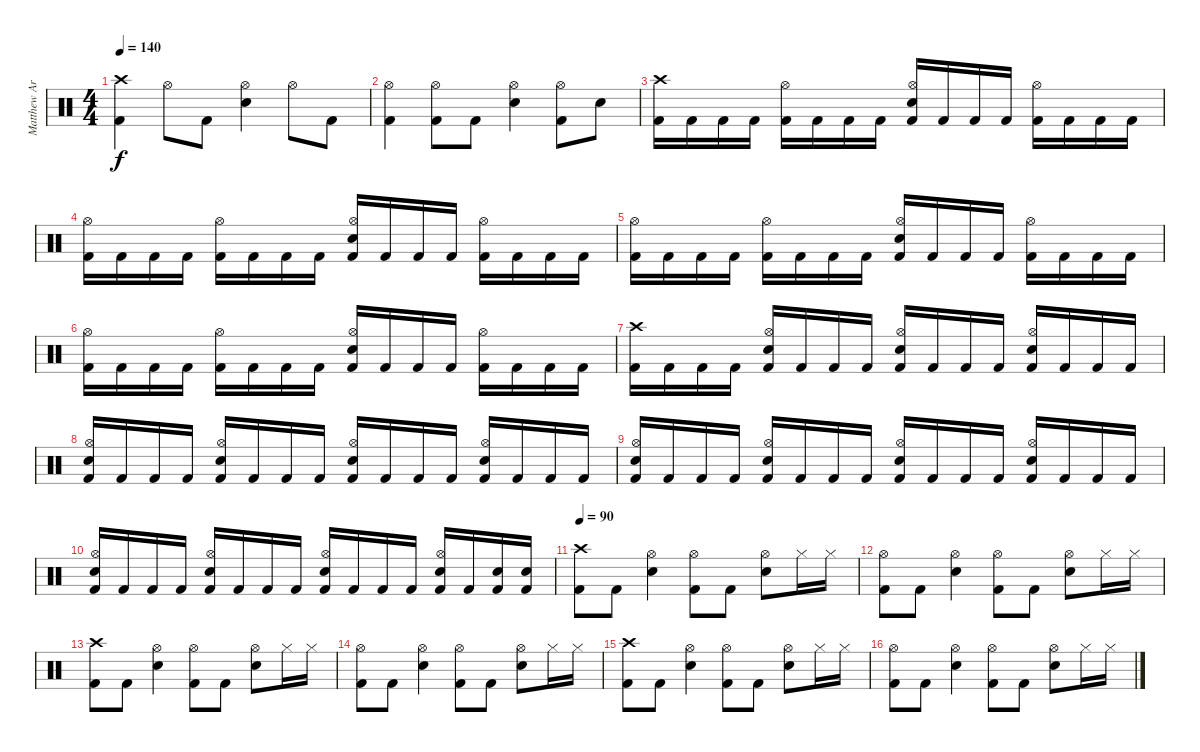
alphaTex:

\track ("Matthew Archer" "Matthew Ar") {instrument percussion}
\staff {score}
\articulation defaults
\ts (4 4)
\tempo 140
\clef neutral
\ks c
("Kick (hit) 2" "Crash high (hit)").4{dy f} "Hi-Hat (open)".8 "Kick (hit) 2".8 ("Hi-Hat (open)" "Electric Snare (hit)").4 "Hi-Hat (open)".8 "Kick (hit) 2".8 |
("Hi-Hat (open)" "Kick (hit) 2").4 ("Hi-Hat (open)" "Kick (hit) 2").8 "Kick (hit) 2".8 ("Hi-Hat (open)" "Electric Snare (hit)").4 ("Hi-Hat (open)" "Kick (hit) 2").8 "Electric Snare (hit)".8 |
("Crash high (hit)" "Kick (hit) 2").16 "Kick (hit) 2".16 "Kick (hit) 2".16 "Kick (hit) 2".16 ("Hi-Hat (open)" "Kick (hit) 2").16 "Kick (hit) 2".16 "Kick (hit) 2".16 "Kick (hit) 2".16 ("Hi-Hat (open)" "Electric Snare (hit)" "Kick (hit) 2").16 "Kick (hit) 2".16 "Kick (hit) 2".16 "Kick (hit) 2".16 ("Hi-Hat (open)" "Kick (hit) 2").16 "Kick (hit) 2".16 "Kick (hit) 2".16 "Kick (hit) 2".16 |
("Hi-Hat (open)" "Kick (hit) 2").16 "Kick (hit) 2".16 "Kick (hit) 2".16 "Kick (hit) 2".16 ("Hi-Hat (open)" "Kick (hit) 2").16 "Kick (hit) 2".16 "Kick (hit) 2".16 "Kick (hit) 2".16 ("Hi-Hat (open)" "Electric Snare (hit)" "Kick (hit) 2").16 "Kick (hit) 2".16 "Kick (hit) 2".16 "Kick (hit) 2".16 ("Hi-Hat (open)" "Kick (hit) 2").16 "Kick (hit) 2".16 "Kick (hit) 2".16 "Kick (hit) 2".16 |
("Hi-Hat (open)" "Kick (hit) 2").16 "Kick (hit) 2".16 "Kick (hit) 2".16 "Kick (hit) 2".16 ("Hi-Hat (open)" "Kick (hit) 2").16 "Kick (hit) 2".16 "Kick (hit) 2".16 "Kick (hit) 2".16 ("Hi-Hat (open)" "Electric Snare (hit)" "Kick (hit) 2").16 "Kick (hit) 2".16 "Kick (hit) 2".16 "Kick (hit) 2".16 ("Hi-Hat (open)" "Kick (hit) 2").16 "Kick (hit) 2".16 "Kick (hit) 2".16 "Kick (hit) 2".16 |
("Hi-Hat (open)" "Kick (hit) 2").16 "Kick (hit) 2".16 "Kick (hit) 2".16 "Kick (hit) 2".16 ("Hi-Hat (open)" "Kick (hit) 2").16 "Kick (hit) 2".16 "Kick (hit) 2".16 "Kick (hit) 2".16 ("Hi-Hat (open)" "Electric Snare (hit)" "Kick (hit) 2").16 "Kick (hit) 2".16 "Kick (hit) 2".16 "Kick (hit) 2".16 ("Hi-Hat (open)" "Kick (hit) 2").16 "Kick (hit) 2".16 "Kick (hit) 2".16 "Kick (hit) 2".16 |
("Crash high (hit)" "Kick (hit) 2").16 "Kick (hit) 2".16 "Kick (hit) 2".16 "Kick (hit) 2".16 ("Electric Snare (hit)" "Hi-Hat (open)" "Kick (hit) 2").16 "Kick (hit) 2".16 "Kick (hit) 2".16 "Kick (hit) 2".16 ("Hi-Hat (open)" "Electric Snare (hit)" "Kick (hit) 2").16 "Kick (hit) 2".16 "Kick (hit) 2".16 "Kick (hit) 2".16 ("Electric Snare (hit)" "Hi-Hat (open)" "Kick (hit) 2").16 "Kick (hit) 2".16 "Kick (hit) 2".16 "Kick (hit) 2".16 |
("Electric Snare (hit)" "Hi-Hat (open)" "Kick (hit) 2").16 "Kick (hit) 2".16 "Kick (hit) 2".16 "Kick (hit) 2".16 ("Electric Snare (hit)" "Hi-Hat (open)" "Kick (hit) 2").16 "Kick (hit) 2".16 "Kick (hit) 2".16 "Kick (hit) 2".16 ("Hi-Hat (open)" "Electric Snare (hit)" "Kick (hit) 2").16 "Kick (hit) 2".16 "Kick (hit) 2".16 "Kick (hit) 2".16 ("Electric Snare (hit)" "Hi-Hat (open)" "Kick (hit) 2").16 "Kick (hit) 2".16 "Kick (hit) 2".16 "Kick (hit) 2".16 |
("Electric Snare (hit)" "Hi-Hat (open)" "Kick (hit) 2").16 "Kick (hit) 2".16 "Kick (hit) 2".16 "Kick (hit) 2".16 ("Electric Snare (hit)" "Hi-Hat (open)" "Kick (hit) 2").16 "Kick (hit) 2".16 "Kick (hit) 2".16 "Kick (hit) 2".16 ("Hi-Hat (open)" "Electric Snare (hit)" "Kick (hit) 2").16 "Kick (hit) 2".16 "Kick (hit) 2".16 "Kick (hit) 2".16 ("Electric Snare (hit)" "Hi-Hat (open)" "Kick (hit) 2").16 "Kick (hit) 2".16 "Kick (hit) 2".16 "Kick (hit) 2".16 |
("Electric Snare (hit)" "Hi-Hat (open)" "Kick (hit) 2").16 "Kick (hit) 2".16 "Kick (hit) 2".16 "Kick (hit) 2".16 ("Electric Snare (hit)" "Hi-Hat (open)" "Kick (hit) 2").16 "Kick (hit) 2".16 "Kick (hit) 2".16 "Kick (hit) 2".16 ("Hi-Hat (open)" "Electric Snare (hit)" "Kick (hit) 2").16 "Kick (hit) 2".16 "Kick (hit) 2".16 "Kick (hit) 2".16 ("Electric Snare (hit)" "Hi-Hat (open)" "Kick (hit) 2").16 "Kick (hit) 2".16 ("Electric Snare (hit)" "Kick (hit) 2").16 ("Electric Snare (hit)" "Kick (hit) 2").16 |
\tempo 90
("Crash high (hit)" "Kick (hit) 2").8 "Kick (hit) 2".8 ("Hi-Hat (open)" "Electric Snare (hit)").4 ("Hi-Hat (open)" "Kick (hit) 2").8 "Kick (hit) 2".8 ("Hi-Hat (open)" "Electric Snare (hit)").8 "Hi-Hat (closed)".16 "Hi-Hat (closed)".16 |
("Hi-Hat (open)" "Kick (hit) 2").8 "Kick (hit) 2".8 ("Hi-Hat (open)" "Electric Snare (hit)").4 ("Hi-Hat (open)" "Kick (hit) 2").8 "Kick (hit) 2".8 ("Hi-Hat (open)" "Electric Snare (hit)").8 "Hi-Hat (closed)".16 "Hi-Hat (closed)".16 |
("Crash high (hit)" "Kick (hit) 2").8 "Kick (hit) 2".8 ("Hi-Hat (open)" "Electric Snare (hit)").4 ("Hi-Hat (open)" "Kick (hit) 2").8 "Kick (hit) 2".8 ("Hi-Hat (open)" "Electric Snare (hit)").8 "Hi-Hat (closed)".16 "Hi-Hat (closed)".16 |
("Hi-Hat (open)" "Kick (hit) 2").8 "Kick (hit) 2".8 ("Hi-Hat (open)" "Electric Snare (hit)").4 ("Hi-Hat (open)" "Kick (hit) 2").8 "Kick (hit) 2".8 ("Hi-Hat (open)" "Electric Snare (hit)").8 "Hi-Hat (closed)".16 "Hi-Hat (closed)".16 |
("Crash high (hit)" "Kick (hit) 2").8 "Kick (hit) 2".8 ("Hi-Hat (open)" "Electric Snare (hit)").4 ("Hi-Hat (open)" "Kick (hit) 2").8 "Kick (hit) 2".8 ("Hi-Hat (open)" "Electric Snare (hit)").8 "Hi-Hat (closed)".16 "Hi-Hat (closed)".16 |
("Hi-Hat (open)" "Kick (hit) 2").8 "Kick (hit) 2".8 ("Hi-Hat (open)" "Electric Snare (hit)").4 ("Hi-Hat (open)" "Kick (hit) 2").8 "Kick (hit) 2".8 ("Hi-Hat (open)" "Electric Snare (hit)").8 "Hi-Hat (closed)".16 "Hi-Hat (closed)".16
